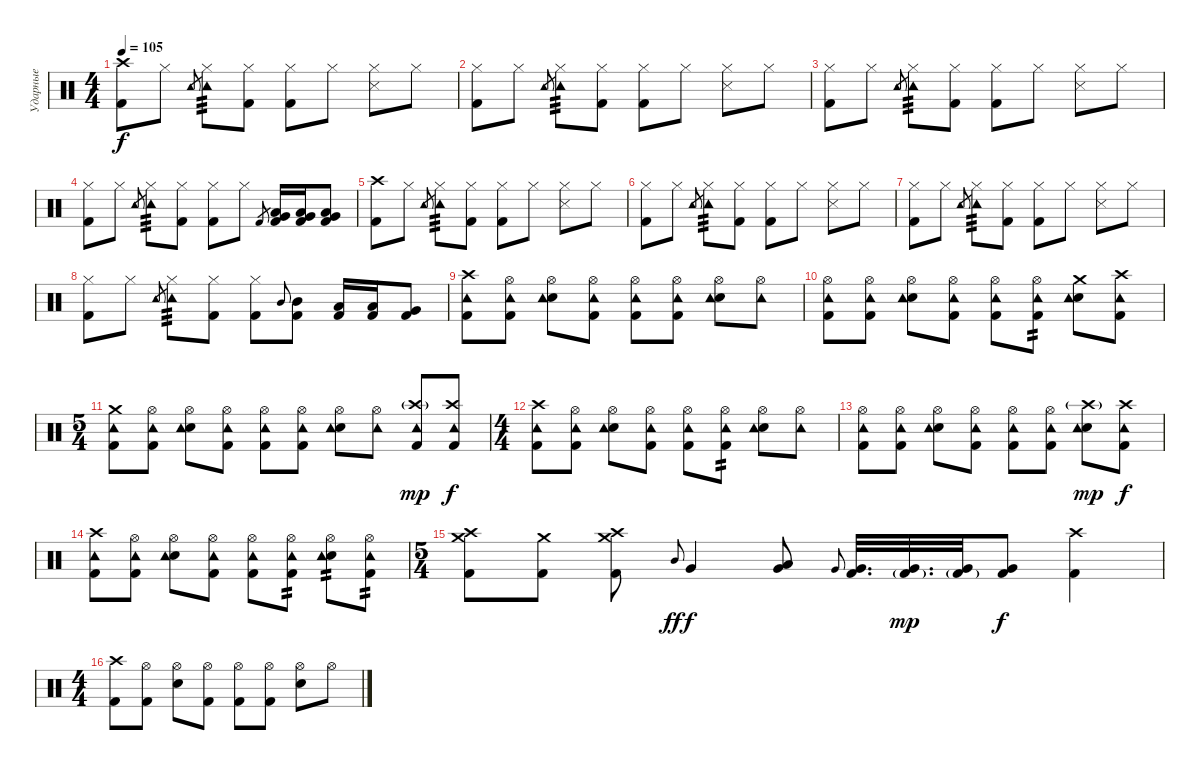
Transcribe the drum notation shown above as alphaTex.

\track ("Ударные" "Ударные") {instrument percussion}
\staff {score}
\articulation defaults
\ts (4 4)
\tempo 105
\clef neutral
\ks c
("Kick (hit) 2" "Crash high (hit)").8{dy f} "Hi-Hat (closed)".8 "Tambourine (hit)".8{gr} ("Hi-Hat (closed)" "Tambourine (hit)").8{tp 3} ("Kick (hit) 2" "Hi-Hat (closed)").8 ("Kick (hit) 2" "Hi-Hat (closed)").8 "Hi-Hat (closed)".8 ("Snare (side stick) 3" "Hi-Hat (closed)").8 "Hi-Hat (closed)".8 |
("Kick (hit) 2" "Hi-Hat (closed)").8 "Hi-Hat (closed)".8 "Tambourine (hit)".8{gr} ("Hi-Hat (closed)" "Tambourine (hit)").8{tp 3} ("Kick (hit) 2" "Hi-Hat (closed)").8 ("Kick (hit) 2" "Hi-Hat (closed)").8 "Hi-Hat (closed)".8 ("Snare (side stick) 3" "Hi-Hat (closed)").8 "Hi-Hat (closed)".8 |
("Kick (hit) 2" "Hi-Hat (closed)").8 "Hi-Hat (closed)".8 "Tambourine (hit)".8{gr} ("Hi-Hat (closed)" "Tambourine (hit)").8{tp 3} ("Kick (hit) 2" "Hi-Hat (closed)").8 ("Kick (hit) 2" "Hi-Hat (closed)").8 "Hi-Hat (closed)".8 ("Snare (side stick) 3" "Hi-Hat (closed)").8 "Hi-Hat (closed)".8 |
("Kick (hit) 2" "Hi-Hat (closed)").8 "Hi-Hat (closed)".8 "Tambourine (hit)".8{gr} ("Hi-Hat (closed)" "Tambourine (hit)").8{tp 3} ("Kick (hit) 2" "Hi-Hat (closed)").8 ("Kick (hit) 2" "Hi-Hat (closed)").8 "Hi-Hat (closed)".8 "Kick (hit) 2".8{gr} ("Kick (hit) 2" "Very Low Tom (hit)" "Low Tom (hit)").16 ("Kick (hit) 2" "Very Low Tom (hit)" "Low Tom (hit)").16 ("Kick (hit) 2" "Very Low Tom (hit)" "Low Tom (hit)").8 |
("Kick (hit) 2" "Crash high (hit)").8 "Hi-Hat (closed)".8 "Tambourine (hit)".8{gr} ("Hi-Hat (closed)" "Tambourine (hit)").8{tp 3} ("Kick (hit) 2" "Hi-Hat (closed)").8 ("Kick (hit) 2" "Hi-Hat (closed)").8 "Hi-Hat (closed)".8 ("Snare (side stick) 3" "Hi-Hat (closed)").8 "Hi-Hat (closed)".8 |
("Kick (hit) 2" "Hi-Hat (closed)").8 "Hi-Hat (closed)".8 "Tambourine (hit)".8{gr} ("Hi-Hat (closed)" "Tambourine (hit)").8{tp 3} ("Kick (hit) 2" "Hi-Hat (closed)").8 ("Kick (hit) 2" "Hi-Hat (closed)").8 "Hi-Hat (closed)".8 ("Snare (side stick) 3" "Hi-Hat (closed)").8 "Hi-Hat (closed)".8 |
("Kick (hit) 2" "Hi-Hat (closed)").8 "Hi-Hat (closed)".8 "Tambourine (hit)".8{gr} ("Hi-Hat (closed)" "Tambourine (hit)").8{tp 3} ("Kick (hit) 2" "Hi-Hat (closed)").8 ("Kick (hit) 2" "Hi-Hat (closed)").8 "Hi-Hat (closed)".8 ("Snare (side stick) 3" "Hi-Hat (closed)").8 "Hi-Hat (closed)".8 |
("Kick (hit) 2" "Hi-Hat (closed)").8 "Hi-Hat (closed)".8 "Tambourine (hit)".8{gr} ("Hi-Hat (closed)" "Tambourine (hit)").8{tp 3} ("Kick (hit) 2" "Hi-Hat (closed)").8 ("Kick (hit) 2" "Hi-Hat (closed)").8 "Mid Tom (hit)".8{gr onbeat} ("Mid Tom (hit)" "Kick (hit) 2").8 ("Low Tom (hit)" "Kick (hit) 2").16 ("Low Tom (hit)" "Kick (hit) 2").16 ("Very Low Tom (hit)" "Kick (hit) 2").8 |
("Kick (hit) 2" "Crash high (hit)" "Tambourine (hit)").8 ("Kick (hit) 2" "Hi-Hat (open)" "Tambourine (hit)").8 ("Electric Snare (hit)" "Hi-Hat (open)" "Tambourine (hit)").8 ("Kick (hit) 2" "Hi-Hat (open)" "Tambourine (hit)").8 ("Kick (hit) 2" "Hi-Hat (open)" "Tambourine (hit)").8 ("Kick (hit) 2" "Hi-Hat (open)" "Tambourine (hit)").8 ("Electric Snare (hit)" "Hi-Hat (open)" "Tambourine (hit)").8 ("Hi-Hat (open)" "Tambourine (hit)").8 |
("Kick (hit) 2" "Hi-Hat (open)" "Tambourine (hit)").8 ("Kick (hit) 2" "Hi-Hat (open)" "Tambourine (hit)").8 ("Electric Snare (hit)" "Hi-Hat (open)" "Tambourine (hit)").8 ("Kick (hit) 2" "Hi-Hat (open)" "Tambourine (hit)").8 ("Kick (hit) 2" "Hi-Hat (open)" "Tambourine (hit)").8 ("Kick (hit) 2" "Hi-Hat (open)" "Tambourine (hit)").8{tp 2} ("Electric Snare (hit)" "Crash medium (hit)" "Tambourine (hit)").8 ("Kick (hit) 2" "Crash high (hit)" "Tambourine (hit)").8 |
\ts (5 4)
("Kick (hit) 2" "Crash medium (hit)" "Tambourine (hit)").8 ("Kick (hit) 2" "Hi-Hat (open)" "Tambourine (hit)").8 ("Electric Snare (hit)" "Hi-Hat (open)" "Tambourine (hit)").8 ("Kick (hit) 2" "Hi-Hat (open)" "Tambourine (hit)").8 ("Kick (hit) 2" "Hi-Hat (open)" "Tambourine (hit)").8 ("Kick (hit) 2" "Hi-Hat (open)" "Tambourine (hit)").8 ("Electric Snare (hit)" "Hi-Hat (open)" "Tambourine (hit)").8 ("Hi-Hat (open)" "Tambourine (hit)").8 ("Kick (hit) 2" "Crash high (hit)"{g} "Tambourine (hit)").8{dy mp} ("Kick (hit) 2" "Crash high (hit)" "Tambourine (hit)").8{dy f} |
\ts (4 4)
("Kick (hit) 2" "Crash high (hit)" "Tambourine (hit)").8 ("Kick (hit) 2" "Hi-Hat (open)" "Tambourine (hit)").8 ("Electric Snare (hit)" "Hi-Hat (open)" "Tambourine (hit)").8 ("Kick (hit) 2" "Hi-Hat (open)" "Tambourine (hit)").8 ("Kick (hit) 2" "Hi-Hat (open)" "Tambourine (hit)").8 ("Kick (hit) 2" "Hi-Hat (open)" "Tambourine (hit)").8{tp 2} ("Electric Snare (hit)" "Hi-Hat (open)" "Tambourine (hit)").8 ("Hi-Hat (open)" "Tambourine (hit)").8 |
("Kick (hit) 2" "Hi-Hat (open)" "Tambourine (hit)").8 ("Kick (hit) 2" "Hi-Hat (open)" "Tambourine (hit)").8 ("Electric Snare (hit)" "Hi-Hat (open)" "Tambourine (hit)").8 ("Kick (hit) 2" "Hi-Hat (open)" "Tambourine (hit)").8 ("Kick (hit) 2" "Hi-Hat (open)" "Tambourine (hit)").8 ("Kick (hit) 2" "Hi-Hat (open)" "Tambourine (hit)").8 ("Electric Snare (hit)" "Crash high (hit)"{g} "Tambourine (hit)").8{dy mp} ("Kick (hit) 2" "Crash high (hit)" "Tambourine (hit)").8{dy f} |
("Kick (hit) 2" "Crash high (hit)" "Tambourine (hit)").8 ("Kick (hit) 2" "Hi-Hat (open)" "Tambourine (hit)").8 ("Electric Snare (hit)" "Hi-Hat (open)" "Tambourine (hit)").8 ("Kick (hit) 2" "Hi-Hat (open)" "Tambourine (hit)").8 ("Kick (hit) 2" "Hi-Hat (open)" "Tambourine (hit)").8 ("Kick (hit) 2" "Hi-Hat (open)" "Tambourine (hit)").8{tp 2} ("Electric Snare (hit)" "Hi-Hat (open)" "Tambourine (hit)").8{tp 2} ("Kick (hit) 2" "Hi-Hat (open)" "Tambourine (hit)").8{tp 2} |
\ts (5 4)
("Kick (hit) 2" "Crash high (hit)" "Crash medium (hit)").8 ("Kick (hit) 2" "Crash medium (hit)").8 ("Kick (hit) 2" "Crash high (hit)" "Crash medium (hit)").8 "Mid Tom (hit)".8{gr onbeat dy ff} "Very Low Tom (hit)".4{dy f} ("Low Tom (hit)" "Very Low Tom (hit)").8 "Very Low Tom (hit)".8{gr onbeat} ("Kick (hit) 2" "Very Low Tom (hit)").32{d} ("Kick (hit) 2"{g} "Very Low Tom (hit)").32{d dy mp} ("Kick (hit) 2"{g} "Very Low Tom (hit)").32 ("Kick (hit) 2" "Very Low Tom (hit)").8{dy f} ("Kick (hit) 2" "Crash high (hit)").4 |
\ts (4 4)
("Kick (hit) 2" "Crash high (hit)").8 ("Kick (hit) 2" "Hi-Hat (open)").8 ("Electric Snare (hit)" "Hi-Hat (open)").8 ("Kick (hit) 2" "Hi-Hat (open)").8 ("Kick (hit) 2" "Hi-Hat (open)").8 ("Kick (hit) 2" "Hi-Hat (open)").8 ("Electric Snare (hit)" "Hi-Hat (open)").8 "Hi-Hat (open)".8
